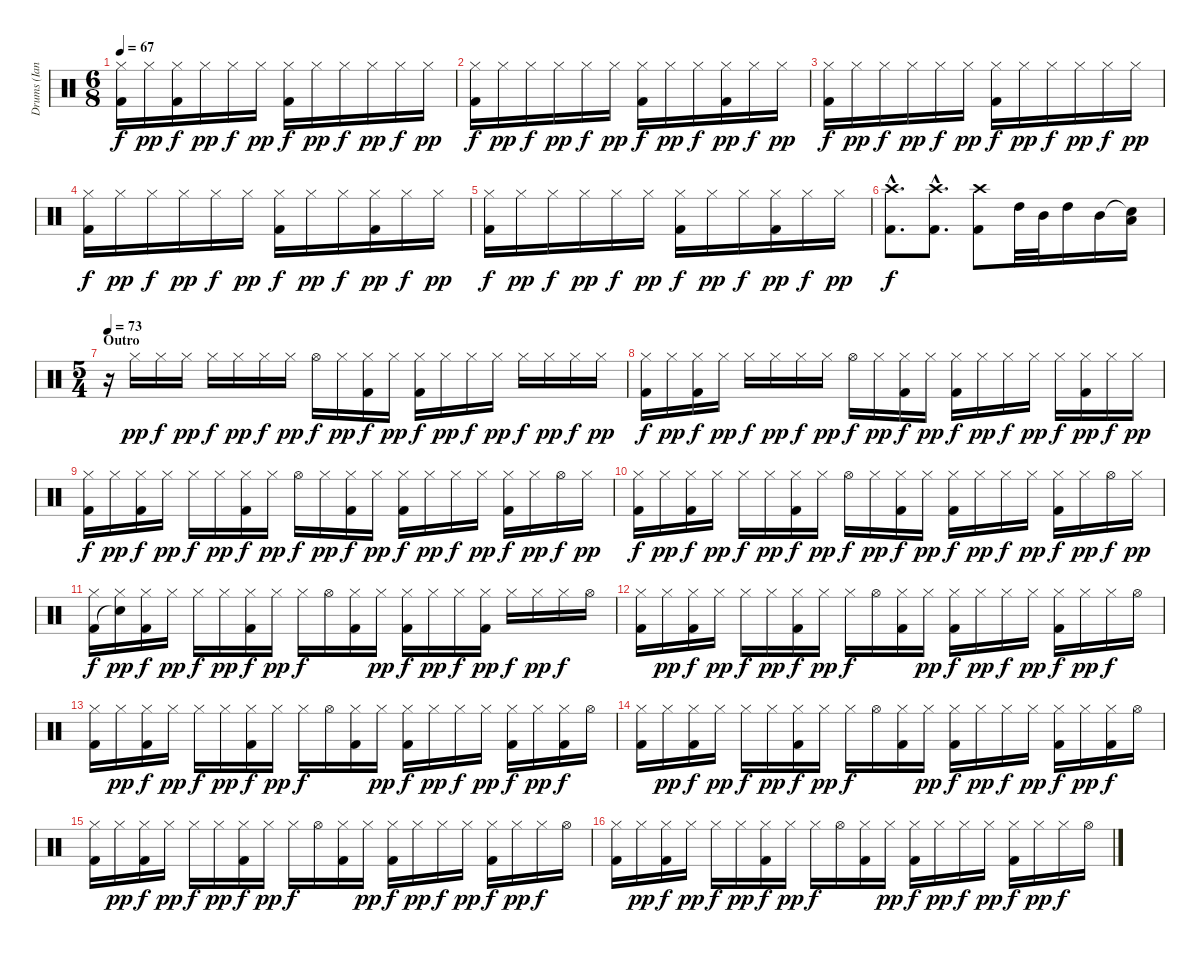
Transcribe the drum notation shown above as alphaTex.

\track ("Drums (Ian Mosley)" "Drums (Ian") {instrument percussion}
\staff {score}
\articulation defaults
\ts (6 8)
\tempo 67
\clef neutral
\ks c
("Kick (hit) 2" "Hi-Hat (closed)").16{dy f} "Hi-Hat (closed)".16{dy pp} ("Kick (hit) 2" "Hi-Hat (closed)").16{dy f} "Hi-Hat (closed)".16{dy pp} "Hi-Hat (closed)".16{dy f} "Hi-Hat (closed)".16{dy pp} ("Kick (hit) 2" "Hi-Hat (closed)").16{dy f} "Hi-Hat (closed)".16{dy pp} "Hi-Hat (closed)".16{dy f} "Hi-Hat (closed)".16{dy pp} "Hi-Hat (closed)".16{dy f} "Hi-Hat (closed)".16{dy pp} |
("Kick (hit) 2" "Hi-Hat (closed)").16{dy f} "Hi-Hat (closed)".16{dy pp} "Hi-Hat (closed)".16{dy f} "Hi-Hat (closed)".16{dy pp} "Hi-Hat (closed)".16{dy f} "Hi-Hat (closed)".16{dy pp} ("Kick (hit) 2" "Hi-Hat (closed)").16{dy f} "Hi-Hat (closed)".16{dy pp} "Hi-Hat (closed)".16{dy f} ("Kick (hit) 2" "Hi-Hat (closed)").16{dy pp} "Hi-Hat (closed)".16{dy f} "Hi-Hat (closed)".16{dy pp} |
("Kick (hit) 2" "Hi-Hat (closed)").16{dy f} "Hi-Hat (closed)".16{dy pp} "Hi-Hat (closed)".16{dy f} "Hi-Hat (closed)".16{dy pp} "Hi-Hat (closed)".16{dy f} "Hi-Hat (closed)".16{dy pp} ("Kick (hit) 2" "Hi-Hat (closed)").16{dy f} "Hi-Hat (closed)".16{dy pp} "Hi-Hat (closed)".16{dy f} "Hi-Hat (closed)".16{dy pp} "Hi-Hat (closed)".16{dy f} "Hi-Hat (closed)".16{dy pp} |
("Kick (hit) 2" "Hi-Hat (closed)").16{dy f} "Hi-Hat (closed)".16{dy pp} "Hi-Hat (closed)".16{dy f} "Hi-Hat (closed)".16{dy pp} "Hi-Hat (closed)".16{dy f} "Hi-Hat (closed)".16{dy pp} ("Kick (hit) 2" "Hi-Hat (closed)").16{dy f} "Hi-Hat (closed)".16{dy pp} "Hi-Hat (closed)".16{dy f} ("Kick (hit) 2" "Hi-Hat (closed)").16{dy pp} "Hi-Hat (closed)".16{dy f} "Hi-Hat (closed)".16{dy pp} |
("Kick (hit) 2" "Hi-Hat (closed)").16{dy f} "Hi-Hat (closed)".16{dy pp} "Hi-Hat (closed)".16{dy f} "Hi-Hat (closed)".16{dy pp} "Hi-Hat (closed)".16{dy f} "Hi-Hat (closed)".16{dy pp} ("Kick (hit) 2" "Hi-Hat (closed)").16{dy f} "Hi-Hat (closed)".16{dy pp} "Hi-Hat (closed)".16{dy f} ("Kick (hit) 2" "Hi-Hat (closed)").16{dy pp} "Hi-Hat (closed)".16{dy f} "Hi-Hat (closed)".16{dy pp} |
("Crash high (hit)"{hac} "Kick (hit) 2"{hac}).8{d dy f} ("Crash high (hit)"{hac} "Kick (hit) 2"{hac}).8{d} ("Crash high (hit)" "Kick (hit) 2").8 "High Tom (hit)".32 "Mid Tom (hit)".32 "High Tom (hit)".16 "Mid Tom (hit)".16 ("Snare (hit)"{t} "Low Tom (hit)").16 |
\ts (5 4)
\section ("" "Outro")
\tempo 73
r.16 "Hi-Hat (closed)".16{dy pp} "Hi-Hat (closed)".16{dy f} "Hi-Hat (closed)".16{dy pp} "Hi-Hat (closed)".16{dy f} "Hi-Hat (closed)".16{dy pp} "Hi-Hat (closed)".16{dy f} "Hi-Hat (closed)".16{dy pp} "Hi-Hat (open)".16{dy f} "Hi-Hat (closed)".16{dy pp} ("Kick (hit) 2" "Hi-Hat (closed)").16{dy f} "Hi-Hat (closed)".16{dy pp} ("Kick (hit) 2" "Hi-Hat (closed)").16{dy f} "Hi-Hat (closed)".16{dy pp} "Hi-Hat (closed)".16{dy f} "Hi-Hat (closed)".16{dy pp} "Hi-Hat (closed)".16{dy f} "Hi-Hat (closed)".16{dy pp} "Hi-Hat (closed)".16{dy f} "Hi-Hat (closed)".16{dy pp} |
("Kick (hit) 2" "Hi-Hat (closed)").16{dy f} "Hi-Hat (closed)".16{dy pp} ("Kick (hit) 2" "Hi-Hat (closed)").16{dy f} "Hi-Hat (closed)".16{dy pp} "Hi-Hat (closed)".16{dy f} "Hi-Hat (closed)".16{dy pp} "Hi-Hat (closed)".16{dy f} "Hi-Hat (closed)".16{dy pp} "Hi-Hat (open)".16{dy f} "Hi-Hat (closed)".16{dy pp} ("Kick (hit) 2" "Hi-Hat (closed)").16{dy f} "Hi-Hat (closed)".16{dy pp} ("Kick (hit) 2" "Hi-Hat (closed)").16{dy f} "Hi-Hat (closed)".16{dy pp} "Hi-Hat (closed)".16{dy f} "Hi-Hat (closed)".16{dy pp} "Hi-Hat (closed)".16{dy f} ("Kick (hit) 2" "Hi-Hat (closed)").16{dy pp} "Hi-Hat (closed)".16{dy f} "Hi-Hat (closed)".16{dy pp} |
("Kick (hit) 2" "Hi-Hat (closed)").16{dy f} "Hi-Hat (closed)".16{dy pp} ("Kick (hit) 2" "Hi-Hat (closed)").16{dy f} "Hi-Hat (closed)".16{dy pp} "Hi-Hat (closed)".16{dy f} "Hi-Hat (closed)".16{dy pp} ("Kick (hit) 2" "Hi-Hat (closed)").16{dy f} "Hi-Hat (closed)".16{dy pp} "Hi-Hat (open)".16{dy f} "Hi-Hat (closed)".16{dy pp} ("Kick (hit) 2" "Hi-Hat (closed)").16{dy f} "Hi-Hat (closed)".16{dy pp} ("Kick (hit) 2" "Hi-Hat (closed)").16{dy f} "Hi-Hat (closed)".16{dy pp} "Hi-Hat (closed)".16{dy f} "Hi-Hat (closed)".16{dy pp} ("Kick (hit) 2" "Hi-Hat (closed)").16{dy f} "Hi-Hat (closed)".16{dy pp} "Hi-Hat (open)".16{dy f} "Hi-Hat (closed)".16{dy pp} |
("Kick (hit) 2" "Hi-Hat (closed)").16{dy f} "Hi-Hat (closed)".16{dy pp} ("Kick (hit) 2" "Hi-Hat (closed)").16{dy f} "Hi-Hat (closed)".16{dy pp} "Hi-Hat (closed)".16{dy f} "Hi-Hat (closed)".16{dy pp} ("Kick (hit) 2" "Hi-Hat (closed)").16{dy f} "Hi-Hat (closed)".16{dy pp} "Hi-Hat (open)".16{dy f} "Hi-Hat (closed)".16{dy pp} ("Kick (hit) 2" "Hi-Hat (closed)").16{dy f} "Hi-Hat (closed)".16{dy pp} ("Kick (hit) 2" "Hi-Hat (closed)").16{dy f} "Hi-Hat (closed)".16{dy pp} "Hi-Hat (closed)".16{dy f} "Hi-Hat (closed)".16{dy pp} ("Kick (hit) 2" "Hi-Hat (closed)").16{dy f} "Hi-Hat (closed)".16{dy pp} "Hi-Hat (open)".16{dy f} "Hi-Hat (closed)".16{dy pp} |
("Kick (hit) 2" "Hi-Hat (closed)").16{dy f} ("Snare (hit)"{t} "Hi-Hat (closed)").16{dy pp} ("Kick (hit) 2" "Hi-Hat (closed)").16{dy f} "Hi-Hat (closed)".16{dy pp} "Hi-Hat (closed)".16{dy f} "Hi-Hat (closed)".16{dy pp} ("Kick (hit) 2" "Hi-Hat (closed)").16{dy f} "Hi-Hat (closed)".16{dy pp} "Hi-Hat (closed)".16{dy f} "Hi-Hat (open)".16 ("Kick (hit) 2" "Hi-Hat (closed)").16 "Hi-Hat (closed)".16{dy pp} ("Kick (hit) 2" "Hi-Hat (closed)").16{dy f} "Hi-Hat (closed)".16{dy pp} "Hi-Hat (closed)".16{dy f} ("Kick (hit) 2" "Hi-Hat (closed)").16{dy pp} "Hi-Hat (closed)".16{dy f} "Hi-Hat (closed)".16{dy pp} "Hi-Hat (closed)".16{dy f} "Hi-Hat (open)".16 |
("Kick (hit) 2" "Hi-Hat (closed)").16 "Hi-Hat (closed)".16{dy pp} ("Kick (hit) 2" "Hi-Hat (closed)").16{dy f} "Hi-Hat (closed)".16{dy pp} "Hi-Hat (closed)".16{dy f} "Hi-Hat (closed)".16{dy pp} ("Kick (hit) 2" "Hi-Hat (closed)").16{dy f} "Hi-Hat (closed)".16{dy pp} "Hi-Hat (closed)".16{dy f} "Hi-Hat (open)".16 ("Kick (hit) 2" "Hi-Hat (closed)").16 "Hi-Hat (closed)".16{dy pp} ("Kick (hit) 2" "Hi-Hat (closed)").16{dy f} "Hi-Hat (closed)".16{dy pp} "Hi-Hat (closed)".16{dy f} "Hi-Hat (closed)".16{dy pp} ("Kick (hit) 2" "Hi-Hat (closed)").16{dy f} "Hi-Hat (closed)".16{dy pp} "Hi-Hat (closed)".16{dy f} "Hi-Hat (open)".16 |
("Kick (hit) 2" "Hi-Hat (closed)").16 "Hi-Hat (closed)".16{dy pp} ("Kick (hit) 2" "Hi-Hat (closed)").16{dy f} "Hi-Hat (closed)".16{dy pp} "Hi-Hat (closed)".16{dy f} "Hi-Hat (closed)".16{dy pp} ("Kick (hit) 2" "Hi-Hat (closed)").16{dy f} "Hi-Hat (closed)".16{dy pp} "Hi-Hat (closed)".16{dy f} "Hi-Hat (open)".16 ("Kick (hit) 2" "Hi-Hat (closed)").16 "Hi-Hat (closed)".16{dy pp} ("Kick (hit) 2" "Hi-Hat (closed)").16{dy f} "Hi-Hat (closed)".16{dy pp} "Hi-Hat (closed)".16{dy f} "Hi-Hat (closed)".16{dy pp} ("Kick (hit) 2" "Hi-Hat (closed)").16{dy f} "Hi-Hat (closed)".16{dy pp} ("Kick (hit) 2" "Hi-Hat (closed)").16{dy f} "Hi-Hat (open)".16 |
("Kick (hit) 2" "Hi-Hat (closed)").16 "Hi-Hat (closed)".16{dy pp} ("Kick (hit) 2" "Hi-Hat (closed)").16{dy f} "Hi-Hat (closed)".16{dy pp} "Hi-Hat (closed)".16{dy f} "Hi-Hat (closed)".16{dy pp} ("Kick (hit) 2" "Hi-Hat (closed)").16{dy f} "Hi-Hat (closed)".16{dy pp} "Hi-Hat (closed)".16{dy f} "Hi-Hat (open)".16 ("Kick (hit) 2" "Hi-Hat (closed)").16 "Hi-Hat (closed)".16{dy pp} ("Kick (hit) 2" "Hi-Hat (closed)").16{dy f} "Hi-Hat (closed)".16{dy pp} "Hi-Hat (closed)".16{dy f} "Hi-Hat (closed)".16{dy pp} ("Kick (hit) 2" "Hi-Hat (closed)").16{dy f} "Hi-Hat (closed)".16{dy pp} ("Kick (hit) 2" "Hi-Hat (closed)").16{dy f} "Hi-Hat (open)".16 |
("Kick (hit) 2" "Hi-Hat (closed)").16 "Hi-Hat (closed)".16{dy pp} ("Kick (hit) 2" "Hi-Hat (closed)").16{dy f} "Hi-Hat (closed)".16{dy pp} "Hi-Hat (closed)".16{dy f} "Hi-Hat (closed)".16{dy pp} ("Kick (hit) 2" "Hi-Hat (closed)").16{dy f} "Hi-Hat (closed)".16{dy pp} "Hi-Hat (closed)".16{dy f} "Hi-Hat (open)".16 ("Kick (hit) 2" "Hi-Hat (closed)").16 "Hi-Hat (closed)".16{dy pp} ("Kick (hit) 2" "Hi-Hat (closed)").16{dy f} "Hi-Hat (closed)".16{dy pp} "Hi-Hat (closed)".16{dy f} "Hi-Hat (closed)".16{dy pp} ("Kick (hit) 2" "Hi-Hat (closed)").16{dy f} "Hi-Hat (closed)".16{dy pp} "Hi-Hat (closed)".16{dy f} "Hi-Hat (open)".16 |
("Kick (hit) 2" "Hi-Hat (closed)").16 "Hi-Hat (closed)".16{dy pp} ("Kick (hit) 2" "Hi-Hat (closed)").16{dy f} "Hi-Hat (closed)".16{dy pp} "Hi-Hat (closed)".16{dy f} "Hi-Hat (closed)".16{dy pp} ("Kick (hit) 2" "Hi-Hat (closed)").16{dy f} "Hi-Hat (closed)".16{dy pp} "Hi-Hat (closed)".16{dy f} "Hi-Hat (open)".16 ("Kick (hit) 2" "Hi-Hat (closed)").16 "Hi-Hat (closed)".16{dy pp} ("Kick (hit) 2" "Hi-Hat (closed)").16{dy f} "Hi-Hat (closed)".16{dy pp} "Hi-Hat (closed)".16{dy f} "Hi-Hat (closed)".16{dy pp} ("Kick (hit) 2" "Hi-Hat (closed)").16{dy f} "Hi-Hat (closed)".16{dy pp} "Hi-Hat (closed)".16{dy f} "Hi-Hat (open)".16
